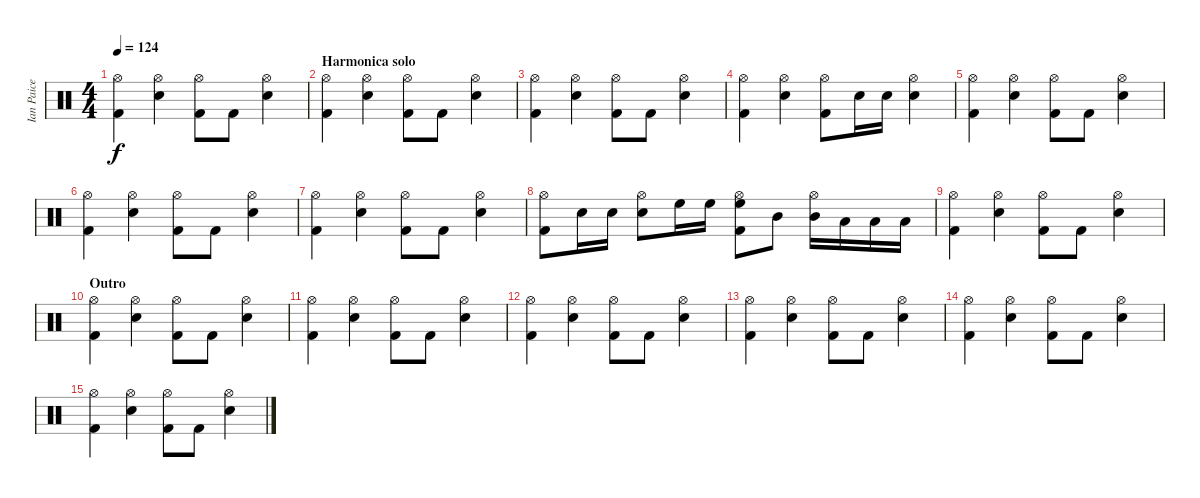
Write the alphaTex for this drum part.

\track ("Ian Paice (drum)" "Ian Paice ") {instrument percussion}
\staff {score}
\articulation defaults
\ts (4 4)
\tempo 124
\clef neutral
\ks c
("Hi-Hat (open)" "Kick (hit) 2").4{dy f} ("Snare (hit) 2" "Hi-Hat (open)").4 ("Hi-Hat (open)" "Kick (hit) 2").8 "Kick (hit) 2".8 ("Snare (hit) 2" "Hi-Hat (open)").4 |
\section ("" "Harmonica solo")
("Hi-Hat (open)" "Kick (hit) 2").4 ("Snare (hit) 2" "Hi-Hat (open)").4 ("Hi-Hat (open)" "Kick (hit) 2").8 "Kick (hit) 2".8 ("Snare (hit) 2" "Hi-Hat (open)").4 |
("Hi-Hat (open)" "Kick (hit) 2").4 ("Snare (hit) 2" "Hi-Hat (open)").4 ("Hi-Hat (open)" "Kick (hit) 2").8 "Kick (hit) 2".8 ("Snare (hit) 2" "Hi-Hat (open)").4 |
("Hi-Hat (open)" "Kick (hit) 2").4 ("Snare (hit) 2" "Hi-Hat (open)").4 ("Hi-Hat (open)" "Kick (hit) 2").8 "Snare (hit) 2".16 "Snare (hit) 2".16 ("Snare (hit) 2" "Hi-Hat (open)").4 |
("Hi-Hat (open)" "Kick (hit) 2").4 ("Snare (hit) 2" "Hi-Hat (open)").4 ("Hi-Hat (open)" "Kick (hit) 2").8 "Kick (hit) 2".8 ("Snare (hit) 2" "Hi-Hat (open)").4 |
("Hi-Hat (open)" "Kick (hit) 2").4 ("Snare (hit) 2" "Hi-Hat (open)").4 ("Hi-Hat (open)" "Kick (hit) 2").8 "Kick (hit) 2".8 ("Snare (hit) 2" "Hi-Hat (open)").4 |
("Hi-Hat (open)" "Kick (hit) 2").4 ("Snare (hit) 2" "Hi-Hat (open)").4 ("Hi-Hat (open)" "Kick (hit) 2").8 "Kick (hit) 2".8 ("Snare (hit) 2" "Hi-Hat (open)").4 |
("Hi-Hat (open)" "Kick (hit) 2").8 "Snare (hit) 2".16 "Snare (hit) 2".16 ("Snare (hit) 2" "Hi-Hat (open)").8 "High Floor Tom (hit)".16 "High Floor Tom (hit)".16 ("High Floor Tom (hit)" "Hi-Hat (open)" "Kick (hit) 2").8 "Mid Tom (hit)".8 ("Mid Tom (hit)" "Hi-Hat (open)").16 "Low Tom (hit)".16 "Low Floor Tom (hit)".16 "Low Floor Tom (hit)".16 |
("Hi-Hat (open)" "Kick (hit) 2").4 ("Snare (hit) 2" "Hi-Hat (open)").4 ("Hi-Hat (open)" "Kick (hit) 2").8 "Kick (hit) 2".8 ("Snare (hit) 2" "Hi-Hat (open)").4 |
\section ("" "Outro")
("Hi-Hat (open)" "Kick (hit) 2").4 ("Snare (hit) 2" "Hi-Hat (open)").4 ("Hi-Hat (open)" "Kick (hit) 2").8 "Kick (hit) 2".8 ("Snare (hit) 2" "Hi-Hat (open)").4 |
("Hi-Hat (open)" "Kick (hit) 2").4 ("Snare (hit) 2" "Hi-Hat (open)").4 ("Hi-Hat (open)" "Kick (hit) 2").8 "Kick (hit) 2".8 ("Snare (hit) 2" "Hi-Hat (open)").4 |
("Hi-Hat (open)" "Kick (hit) 2").4 ("Snare (hit) 2" "Hi-Hat (open)").4 ("Hi-Hat (open)" "Kick (hit) 2").8 "Kick (hit) 2".8 ("Snare (hit) 2" "Hi-Hat (open)").4 |
("Hi-Hat (open)" "Kick (hit) 2").4 ("Snare (hit) 2" "Hi-Hat (open)").4 ("Hi-Hat (open)" "Kick (hit) 2").8 "Kick (hit) 2".8 ("Snare (hit) 2" "Hi-Hat (open)").4 |
("Hi-Hat (open)" "Kick (hit) 2").4 ("Snare (hit) 2" "Hi-Hat (open)").4 ("Hi-Hat (open)" "Kick (hit) 2").8 "Kick (hit) 2".8 ("Snare (hit) 2" "Hi-Hat (open)").4 |
("Hi-Hat (open)" "Kick (hit) 2").4 ("Snare (hit) 2" "Hi-Hat (open)").4 ("Hi-Hat (open)" "Kick (hit) 2").8 "Kick (hit) 2".8 ("Snare (hit) 2" "Hi-Hat (open)").4
